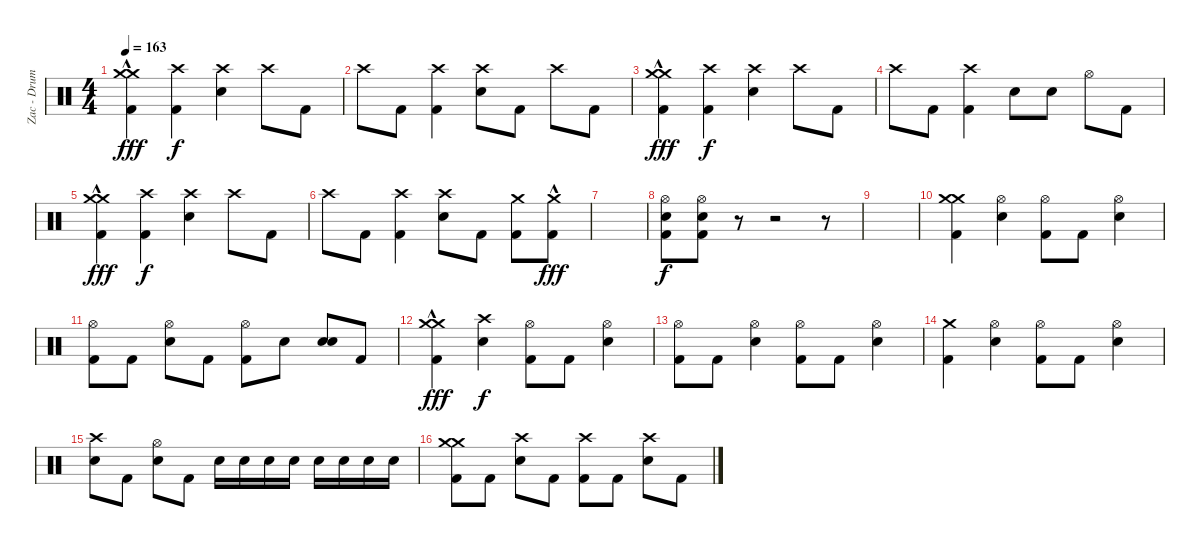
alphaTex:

\track ("Zac - Drums" "Zac - Drum") {instrument percussion}
\staff {score}
\articulation defaults
\ts (4 4)
\tempo 163
\clef neutral
\ks c
("Crash medium (hit)"{hac} "Crash medium (hit)" "Kick (hit) 2").4{dy fff} ("Crash high (hit)" "Kick (hit) 2").4{dy f} ("Crash high (hit)" "Snare (hit) 2").4 "Crash high (hit)".8 "Kick (hit) 2".8 |
"Crash high (hit)".8 "Kick (hit) 2".8 ("Crash high (hit)" "Kick (hit) 2").4 ("Crash high (hit)" "Snare (hit) 2").8 "Kick (hit) 2".8 "Crash high (hit)".8 "Kick (hit) 2".8 |
("Crash medium (hit)"{hac} "Crash medium (hit)" "Kick (hit) 2").4{dy fff} ("Crash high (hit)" "Kick (hit) 2").4{dy f} ("Crash high (hit)" "Snare (hit) 2").4 "Crash high (hit)".8 "Kick (hit) 2".8 |
"Crash high (hit)".8 "Kick (hit) 2".8 ("Crash high (hit)" "Kick (hit) 2").4 "Snare (hit) 2".8 "Snare (hit) 2".8 "Hi-Hat (open)".8 "Kick (hit) 2".8 |
("Crash medium (hit)"{hac} "Crash medium (hit)" "Kick (hit) 2").4{dy fff} ("Crash high (hit)" "Kick (hit) 2").4{dy f} ("Crash high (hit)" "Snare (hit) 2").4 "Crash high (hit)".8 "Kick (hit) 2".8 |
"Crash high (hit)".8 "Kick (hit) 2".8 ("Crash high (hit)" "Kick (hit) 2").4 ("Crash high (hit)" "Snare (hit) 2").8 "Kick (hit) 2".8 ("Crash medium (hit)" "Kick (hit) 2").8 ("Crash medium (hit)"{hac} "Kick (hit) 2").8{dy fff} |
|
("Hi-Hat (open)" "Snare (hit) 2" "Kick (hit) 2").8{dy f} ("Hi-Hat (open)" "Snare (hit) 2" "Kick (hit) 2").8 r.8 r.2 r.8 |
|
("Crash medium (hit)" "Crash medium (hit)" "Kick (hit) 2").4 ("Hi-Hat (open)" "Snare (hit) 2").4 ("Hi-Hat (open)" "Kick (hit) 2").8 "Kick (hit) 2".8 ("Hi-Hat (open)" "Snare (hit) 2").4 |
("Hi-Hat (open)" "Kick (hit) 2").8 "Kick (hit) 2".8 ("Hi-Hat (open)" "Snare (hit) 2").8 "Kick (hit) 2".8 ("Hi-Hat (open)" "Kick (hit) 2").8 "Snare (hit) 2".8 ("Snare (hit) 2" "Snare (hit) 2").8 "Kick (hit) 2".8 |
("Crash medium (hit)"{hac} "Crash medium (hit)" "Kick (hit) 2").4{dy fff} ("Crash high (hit)" "Snare (hit) 2").4{dy f} ("Hi-Hat (open)" "Kick (hit) 2").8 "Kick (hit) 2".8 ("Hi-Hat (open)" "Snare (hit) 2").4 |
("Hi-Hat (open)" "Kick (hit) 2").8 "Kick (hit) 2".8 ("Hi-Hat (open)" "Snare (hit) 2").4 ("Hi-Hat (open)" "Kick (hit) 2").8 "Kick (hit) 2".8 ("Hi-Hat (open)" "Snare (hit) 2").4 |
("Crash medium (hit)" "Kick (hit) 2").4 ("Hi-Hat (open)" "Snare (hit) 2").4 ("Hi-Hat (open)" "Kick (hit) 2").8 "Kick (hit) 2".8 ("Hi-Hat (open)" "Snare (hit) 2").4 |
("Crash high (hit)" "Snare (hit) 2").8 "Kick (hit) 2".8 ("Hi-Hat (open)" "Snare (hit) 2").8 "Kick (hit) 2".8 "Snare (hit) 2".16 "Snare (hit) 2".16 "Snare (hit) 2".16 "Snare (hit) 2".16 "Snare (hit) 2".16 "Snare (hit) 2".16 "Snare (hit) 2".16 "Snare (hit) 2".16 |
("Crash medium (hit)" "Crash medium (hit)" "Kick (hit) 2").8 "Kick (hit) 2".8 ("Crash high (hit)" "Snare (hit) 2").8 "Kick (hit) 2".8 ("Crash high (hit)" "Kick (hit) 2").8 "Kick (hit) 2".8 ("Crash high (hit)" "Snare (hit) 2").8 "Kick (hit) 2".8
